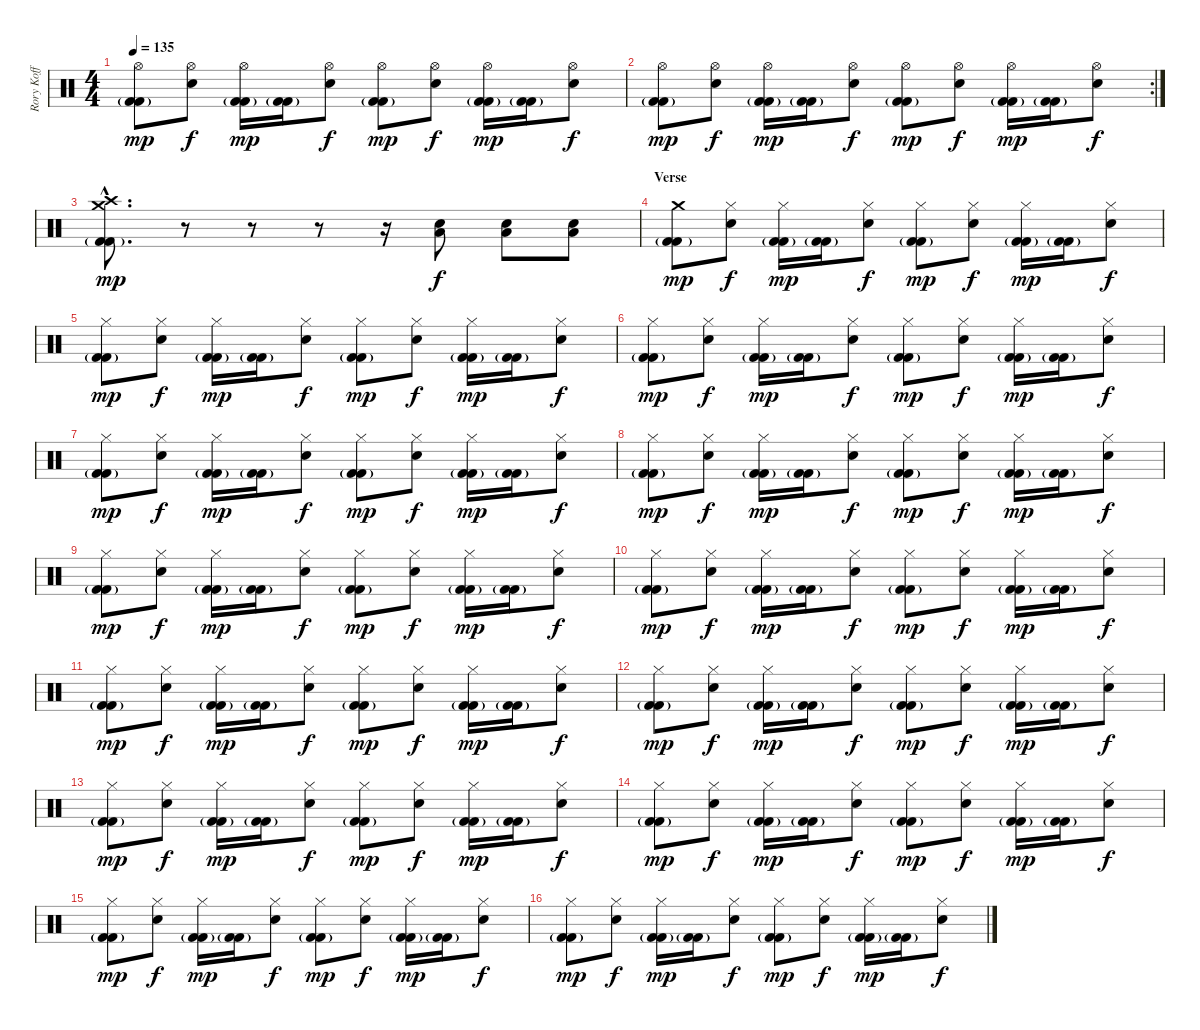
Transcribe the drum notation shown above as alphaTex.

\track ("Rory Koff" "Rory Koff") {instrument percussion}
\staff {score}
\articulation defaults
\ts (4 4)
\tempo 135
\clef neutral
\ks c
("Hi-Hat (open)" "Kick (hit) 2"{g} "Kick (hit) 2").8{dy mp} ("Hi-Hat (open)" "Snare (hit) 2").8{dy f} ("Hi-Hat (open)" "Kick (hit) 2"{g} "Kick (hit) 2").16{dy mp} ("Kick (hit) 2"{g} "Kick (hit) 2").16 ("Hi-Hat (open)" "Snare (hit) 2").8{dy f} ("Hi-Hat (open)" "Kick (hit) 2"{g} "Kick (hit) 2").8{dy mp} ("Hi-Hat (open)" "Snare (hit) 2").8{dy f} ("Hi-Hat (open)" "Kick (hit) 2"{g} "Kick (hit) 2").16{dy mp} ("Kick (hit) 2"{g} "Kick (hit) 2").16 ("Hi-Hat (open)" "Snare (hit) 2").8{dy f} |
\rc 2
("Hi-Hat (open)" "Kick (hit) 2"{g} "Kick (hit) 2").8{dy mp} ("Hi-Hat (open)" "Snare (hit) 2").8{dy f} ("Hi-Hat (open)" "Kick (hit) 2"{g} "Kick (hit) 2").16{dy mp} ("Kick (hit) 2"{g} "Kick (hit) 2").16 ("Hi-Hat (open)" "Snare (hit) 2").8{dy f} ("Hi-Hat (open)" "Kick (hit) 2"{g} "Kick (hit) 2").8{dy mp} ("Hi-Hat (open)" "Snare (hit) 2").8{dy f} ("Hi-Hat (open)" "Kick (hit) 2"{g} "Kick (hit) 2").16{dy mp} ("Kick (hit) 2"{g} "Kick (hit) 2").16 ("Hi-Hat (open)" "Snare (hit) 2").8{dy f} |
("Crash medium (hit)"{hac} "Crash high (hit)"{hac} "Kick (hit) 2"{g hac} "Kick (hit) 2"{hac}).8{d dy mp} r.8 r.8 r.8 r.16 ("Snare (hit) 2" "Low Floor Tom (hit)").8{dy f} ("Snare (hit) 2" "Low Floor Tom (hit)").8 ("Snare (hit) 2" "Low Floor Tom (hit)").8 |
\section ("" "Verse")
("Crash medium (hit)" "Kick (hit) 2"{g} "Kick (hit) 2").8{dy mp} ("Hi-Hat (closed)" "Snare (hit) 2").8{dy f} ("Hi-Hat (closed)" "Kick (hit) 2"{g} "Kick (hit) 2").16{dy mp} ("Kick (hit) 2"{g} "Kick (hit) 2").16 ("Hi-Hat (closed)" "Snare (hit) 2").8{dy f} ("Hi-Hat (closed)" "Kick (hit) 2"{g} "Kick (hit) 2").8{dy mp} ("Hi-Hat (closed)" "Snare (hit) 2").8{dy f} ("Hi-Hat (closed)" "Kick (hit) 2"{g} "Kick (hit) 2").16{dy mp} ("Kick (hit) 2"{g} "Kick (hit) 2").16 ("Hi-Hat (closed)" "Snare (hit) 2").8{dy f} |
("Hi-Hat (closed)" "Kick (hit) 2"{g} "Kick (hit) 2").8{dy mp} ("Hi-Hat (closed)" "Snare (hit) 2").8{dy f} ("Hi-Hat (closed)" "Kick (hit) 2"{g} "Kick (hit) 2").16{dy mp} ("Kick (hit) 2"{g} "Kick (hit) 2").16 ("Hi-Hat (closed)" "Snare (hit) 2").8{dy f} ("Hi-Hat (closed)" "Kick (hit) 2"{g} "Kick (hit) 2").8{dy mp} ("Hi-Hat (closed)" "Snare (hit) 2").8{dy f} ("Hi-Hat (closed)" "Kick (hit) 2"{g} "Kick (hit) 2").16{dy mp} ("Kick (hit) 2"{g} "Kick (hit) 2").16 ("Hi-Hat (closed)" "Snare (hit) 2").8{dy f} |
("Hi-Hat (closed)" "Kick (hit) 2"{g} "Kick (hit) 2").8{dy mp} ("Hi-Hat (closed)" "Snare (hit) 2").8{dy f} ("Hi-Hat (closed)" "Kick (hit) 2"{g} "Kick (hit) 2").16{dy mp} ("Kick (hit) 2"{g} "Kick (hit) 2").16 ("Hi-Hat (closed)" "Snare (hit) 2").8{dy f} ("Hi-Hat (closed)" "Kick (hit) 2"{g} "Kick (hit) 2").8{dy mp} ("Hi-Hat (closed)" "Snare (hit) 2").8{dy f} ("Hi-Hat (closed)" "Kick (hit) 2"{g} "Kick (hit) 2").16{dy mp} ("Kick (hit) 2"{g} "Kick (hit) 2").16 ("Hi-Hat (closed)" "Snare (hit) 2").8{dy f} |
("Hi-Hat (closed)" "Kick (hit) 2"{g} "Kick (hit) 2").8{dy mp} ("Hi-Hat (closed)" "Snare (hit) 2").8{dy f} ("Hi-Hat (closed)" "Kick (hit) 2"{g} "Kick (hit) 2").16{dy mp} ("Kick (hit) 2"{g} "Kick (hit) 2").16 ("Hi-Hat (closed)" "Snare (hit) 2").8{dy f} ("Hi-Hat (closed)" "Kick (hit) 2"{g} "Kick (hit) 2").8{dy mp} ("Hi-Hat (closed)" "Snare (hit) 2").8{dy f} ("Hi-Hat (closed)" "Kick (hit) 2"{g} "Kick (hit) 2").16{dy mp} ("Kick (hit) 2"{g} "Kick (hit) 2").16 ("Hi-Hat (closed)" "Snare (hit) 2").8{dy f} |
("Hi-Hat (closed)" "Kick (hit) 2"{g} "Kick (hit) 2").8{dy mp} ("Hi-Hat (closed)" "Snare (hit) 2").8{dy f} ("Hi-Hat (closed)" "Kick (hit) 2"{g} "Kick (hit) 2").16{dy mp} ("Kick (hit) 2"{g} "Kick (hit) 2").16 ("Hi-Hat (closed)" "Snare (hit) 2").8{dy f} ("Hi-Hat (closed)" "Kick (hit) 2"{g} "Kick (hit) 2").8{dy mp} ("Hi-Hat (closed)" "Snare (hit) 2").8{dy f} ("Hi-Hat (closed)" "Kick (hit) 2"{g} "Kick (hit) 2").16{dy mp} ("Kick (hit) 2"{g} "Kick (hit) 2").16 ("Hi-Hat (closed)" "Snare (hit) 2").8{dy f} |
("Hi-Hat (closed)" "Kick (hit) 2"{g} "Kick (hit) 2").8{dy mp} ("Hi-Hat (closed)" "Snare (hit) 2").8{dy f} ("Hi-Hat (closed)" "Kick (hit) 2"{g} "Kick (hit) 2").16{dy mp} ("Kick (hit) 2"{g} "Kick (hit) 2").16 ("Hi-Hat (closed)" "Snare (hit) 2").8{dy f} ("Hi-Hat (closed)" "Kick (hit) 2"{g} "Kick (hit) 2").8{dy mp} ("Hi-Hat (closed)" "Snare (hit) 2").8{dy f} ("Hi-Hat (closed)" "Kick (hit) 2"{g} "Kick (hit) 2").16{dy mp} ("Kick (hit) 2"{g} "Kick (hit) 2").16 ("Hi-Hat (closed)" "Snare (hit) 2").8{dy f} |
("Hi-Hat (closed)" "Kick (hit) 2"{g} "Kick (hit) 2").8{dy mp} ("Hi-Hat (closed)" "Snare (hit) 2").8{dy f} ("Hi-Hat (closed)" "Kick (hit) 2"{g} "Kick (hit) 2").16{dy mp} ("Kick (hit) 2"{g} "Kick (hit) 2").16 ("Hi-Hat (closed)" "Snare (hit) 2").8{dy f} ("Hi-Hat (closed)" "Kick (hit) 2"{g} "Kick (hit) 2").8{dy mp} ("Hi-Hat (closed)" "Snare (hit) 2").8{dy f} ("Hi-Hat (closed)" "Kick (hit) 2"{g} "Kick (hit) 2").16{dy mp} ("Kick (hit) 2"{g} "Kick (hit) 2").16 ("Hi-Hat (closed)" "Snare (hit) 2").8{dy f} |
("Hi-Hat (closed)" "Kick (hit) 2"{g} "Kick (hit) 2").8{dy mp} ("Hi-Hat (closed)" "Snare (hit) 2").8{dy f} ("Hi-Hat (closed)" "Kick (hit) 2"{g} "Kick (hit) 2").16{dy mp} ("Kick (hit) 2"{g} "Kick (hit) 2").16 ("Hi-Hat (closed)" "Snare (hit) 2").8{dy f} ("Hi-Hat (closed)" "Kick (hit) 2"{g} "Kick (hit) 2").8{dy mp} ("Hi-Hat (closed)" "Snare (hit) 2").8{dy f} ("Hi-Hat (closed)" "Kick (hit) 2"{g} "Kick (hit) 2").16{dy mp} ("Kick (hit) 2"{g} "Kick (hit) 2").16 ("Hi-Hat (closed)" "Snare (hit) 2").8{dy f} |
("Hi-Hat (closed)" "Kick (hit) 2"{g} "Kick (hit) 2").8{dy mp} ("Hi-Hat (closed)" "Snare (hit) 2").8{dy f} ("Hi-Hat (closed)" "Kick (hit) 2"{g} "Kick (hit) 2").16{dy mp} ("Kick (hit) 2"{g} "Kick (hit) 2").16 ("Hi-Hat (closed)" "Snare (hit) 2").8{dy f} ("Hi-Hat (closed)" "Kick (hit) 2"{g} "Kick (hit) 2").8{dy mp} ("Hi-Hat (closed)" "Snare (hit) 2").8{dy f} ("Hi-Hat (closed)" "Kick (hit) 2"{g} "Kick (hit) 2").16{dy mp} ("Kick (hit) 2"{g} "Kick (hit) 2").16 ("Hi-Hat (closed)" "Snare (hit) 2").8{dy f} |
("Hi-Hat (closed)" "Kick (hit) 2"{g} "Kick (hit) 2").8{dy mp} ("Hi-Hat (closed)" "Snare (hit) 2").8{dy f} ("Hi-Hat (closed)" "Kick (hit) 2"{g} "Kick (hit) 2").16{dy mp} ("Kick (hit) 2"{g} "Kick (hit) 2").16 ("Hi-Hat (closed)" "Snare (hit) 2").8{dy f} ("Hi-Hat (closed)" "Kick (hit) 2"{g} "Kick (hit) 2").8{dy mp} ("Hi-Hat (closed)" "Snare (hit) 2").8{dy f} ("Hi-Hat (closed)" "Kick (hit) 2"{g} "Kick (hit) 2").16{dy mp} ("Kick (hit) 2"{g} "Kick (hit) 2").16 ("Hi-Hat (closed)" "Snare (hit) 2").8{dy f} |
("Hi-Hat (closed)" "Kick (hit) 2"{g} "Kick (hit) 2").8{dy mp} ("Hi-Hat (closed)" "Snare (hit) 2").8{dy f} ("Hi-Hat (closed)" "Kick (hit) 2"{g} "Kick (hit) 2").16{dy mp} ("Kick (hit) 2"{g} "Kick (hit) 2").16 ("Hi-Hat (closed)" "Snare (hit) 2").8{dy f} ("Hi-Hat (closed)" "Kick (hit) 2"{g} "Kick (hit) 2").8{dy mp} ("Hi-Hat (closed)" "Snare (hit) 2").8{dy f} ("Hi-Hat (closed)" "Kick (hit) 2"{g} "Kick (hit) 2").16{dy mp} ("Kick (hit) 2"{g} "Kick (hit) 2").16 ("Hi-Hat (closed)" "Snare (hit) 2").8{dy f} |
("Hi-Hat (closed)" "Kick (hit) 2"{g} "Kick (hit) 2").8{dy mp} ("Hi-Hat (closed)" "Snare (hit) 2").8{dy f} ("Hi-Hat (closed)" "Kick (hit) 2"{g} "Kick (hit) 2").16{dy mp} ("Kick (hit) 2"{g} "Kick (hit) 2").16 ("Hi-Hat (closed)" "Snare (hit) 2").8{dy f} ("Hi-Hat (closed)" "Kick (hit) 2"{g} "Kick (hit) 2").8{dy mp} ("Hi-Hat (closed)" "Snare (hit) 2").8{dy f} ("Hi-Hat (closed)" "Kick (hit) 2"{g} "Kick (hit) 2").16{dy mp} ("Kick (hit) 2"{g} "Kick (hit) 2").16 ("Hi-Hat (closed)" "Snare (hit) 2").8{dy f} |
("Hi-Hat (closed)" "Kick (hit) 2"{g} "Kick (hit) 2").8{dy mp} ("Hi-Hat (closed)" "Snare (hit) 2").8{dy f} ("Hi-Hat (closed)" "Kick (hit) 2"{g} "Kick (hit) 2").16{dy mp} ("Kick (hit) 2"{g} "Kick (hit) 2").16 ("Hi-Hat (closed)" "Snare (hit) 2").8{dy f} ("Hi-Hat (closed)" "Kick (hit) 2"{g} "Kick (hit) 2").8{dy mp} ("Hi-Hat (closed)" "Snare (hit) 2").8{dy f} ("Hi-Hat (closed)" "Kick (hit) 2"{g} "Kick (hit) 2").16{dy mp} ("Kick (hit) 2"{g} "Kick (hit) 2").16 ("Hi-Hat (closed)" "Snare (hit) 2").8{dy f}
